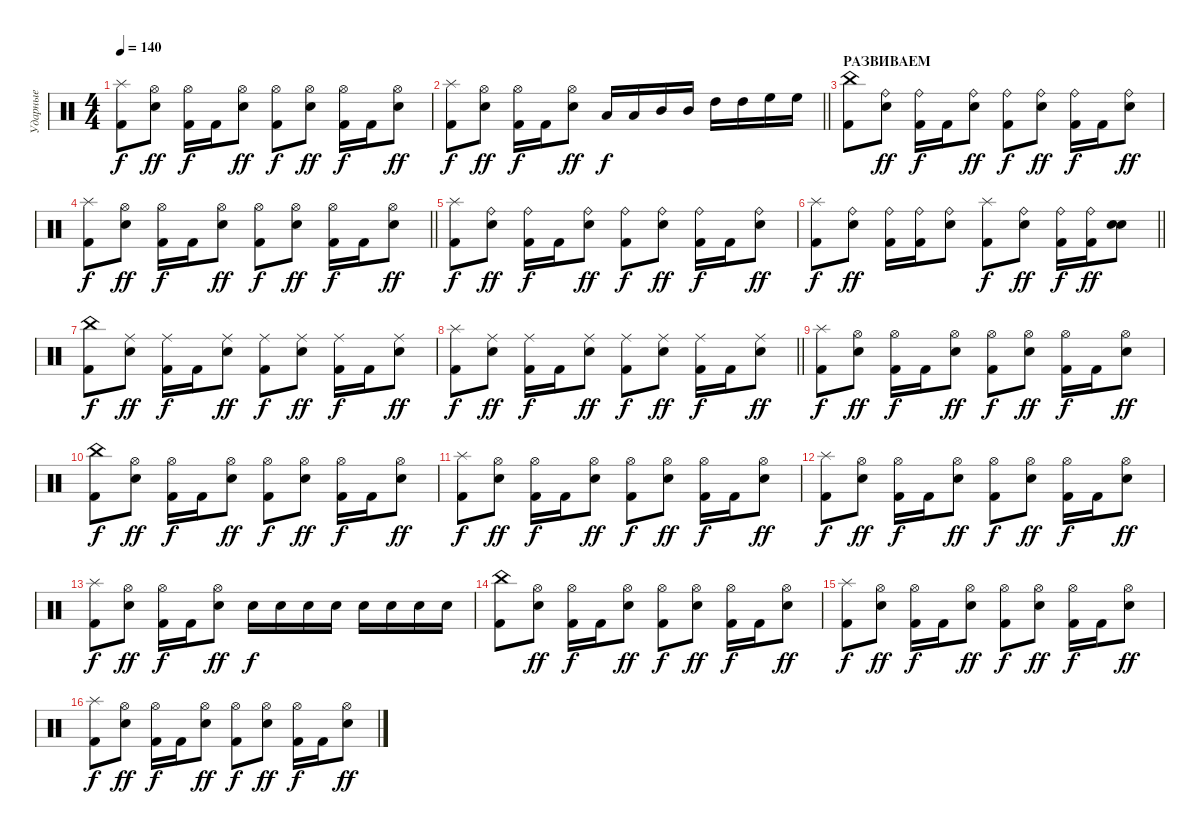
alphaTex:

\track ("Ударные" "Ударные") {instrument percussion}
\staff {score}
\articulation defaults
\ts (4 4)
\tempo 140
\clef neutral
\ks c
("Splash (hit)" "Kick (hit) 2").8{dy f} ("Hi-Hat (open)" "Electric Snare (hit)").8{dy ff} ("Hi-Hat (open)" "Kick (hit) 2").16{dy f} "Kick (hit) 2".16 ("Hi-Hat (open)" "Electric Snare (hit)").8{dy ff} ("Hi-Hat (open)" "Kick (hit) 2").8{dy f} ("Hi-Hat (open)" "Electric Snare (hit)").8{dy ff} ("Hi-Hat (open)" "Kick (hit) 2").16{dy f} "Kick (hit) 2".16 ("Hi-Hat (open)" "Electric Snare (hit)").8{dy ff} |
\barLineRight lightlight
("Splash (hit)" "Kick (hit) 2").8{dy f} ("Hi-Hat (open)" "Electric Snare (hit)").8{dy ff} ("Hi-Hat (open)" "Kick (hit) 2").16{dy f} "Kick (hit) 2".16 ("Hi-Hat (open)" "Electric Snare (hit)").8{dy ff} "Low Tom (hit)".16{dy f} "Low Tom (hit)".16 "Mid Tom (hit)".16 "Mid Tom (hit)".16 "High Tom (hit)".16 "High Tom (hit)".16 "High Floor Tom (hit)".16 "High Floor Tom (hit)".16 |
\section ("" "РАЗВИВАЕМ")
("China (hit)" "Kick (hit) 2").8 ("Ride (bell)" "Electric Snare (hit)").8{dy ff} ("Ride (bell)" "Kick (hit) 2").16{dy f} "Kick (hit) 2".16 ("Ride (bell)" "Electric Snare (hit)").8{dy ff} ("Ride (bell)" "Kick (hit) 2").8{dy f} ("Ride (bell)" "Electric Snare (hit)").8{dy ff} ("Ride (bell)" "Kick (hit) 2").16{dy f} "Kick (hit) 2".16 ("Ride (bell)" "Electric Snare (hit)").8{dy ff} |
\barLineRight lightlight
("Splash (hit)" "Kick (hit) 2").8{dy f} ("Hi-Hat (open)" "Electric Snare (hit)").8{dy ff} ("Hi-Hat (open)" "Kick (hit) 2").16{dy f} "Kick (hit) 2".16 ("Hi-Hat (open)" "Electric Snare (hit)").8{dy ff} ("Hi-Hat (open)" "Kick (hit) 2").8{dy f} ("Hi-Hat (open)" "Electric Snare (hit)").8{dy ff} ("Hi-Hat (open)" "Kick (hit) 2").16{dy f} "Kick (hit) 2".16 ("Hi-Hat (open)" "Electric Snare (hit)").8{dy ff} |
("Splash (hit)" "Kick (hit) 2").8{dy f} ("Ride (bell)" "Electric Snare (hit)").8{dy ff} ("Ride (bell)" "Kick (hit) 2").16{dy f} "Kick (hit) 2".16 ("Ride (bell)" "Electric Snare (hit)").8{dy ff} ("Ride (bell)" "Kick (hit) 2").8{dy f} ("Ride (bell)" "Electric Snare (hit)").8{dy ff} ("Ride (bell)" "Kick (hit) 2").16{dy f} "Kick (hit) 2".16 ("Ride (bell)" "Electric Snare (hit)").8{dy ff} |
\barLineRight lightlight
("Splash (hit)" "Kick (hit) 2").8{dy f} ("Ride (bell)" "Electric Snare (hit)").8{dy ff} ("Ride (bell)" "Kick (hit) 2").16 ("Ride (bell)" "Kick (hit) 2").16 ("Ride (bell)" "Electric Snare (hit)").8 ("Splash (hit)" "Kick (hit) 2").8{dy f} ("Ride (bell)" "Electric Snare (hit)").8{dy ff} ("Ride (bell)" "Kick (hit) 2").16{dy f} ("Ride (bell)" "Kick (hit) 2").16{dy ff} ("Snare (hit)" "Electric Snare (hit)").8 |
("China (hit)" "Kick (hit) 2").8{dy f} ("Ride (middle)" "Electric Snare (hit)").8{dy ff} ("Ride (middle)" "Kick (hit) 2").16{dy f} "Kick (hit) 2".16 ("Ride (middle)" "Electric Snare (hit)").8{dy ff} ("Ride (middle)" "Kick (hit) 2").8{dy f} ("Ride (middle)" "Electric Snare (hit)").8{dy ff} ("Ride (middle)" "Kick (hit) 2").16{dy f} "Kick (hit) 2".16 ("Ride (middle)" "Electric Snare (hit)").8{dy ff} |
\barLineRight lightlight
("Splash (hit)" "Kick (hit) 2").8{dy f} ("Ride (middle)" "Electric Snare (hit)").8{dy ff} ("Ride (middle)" "Kick (hit) 2").16{dy f} "Kick (hit) 2".16 ("Ride (middle)" "Electric Snare (hit)").8{dy ff} ("Ride (middle)" "Kick (hit) 2").8{dy f} ("Ride (middle)" "Electric Snare (hit)").8{dy ff} ("Ride (middle)" "Kick (hit) 2").16{dy f} "Kick (hit) 2".16 ("Ride (middle)" "Electric Snare (hit)").8{dy ff} |
("Splash (hit)" "Kick (hit) 2").8{dy f} ("Hi-Hat (open)" "Electric Snare (hit)").8{dy ff} ("Hi-Hat (open)" "Kick (hit) 2").16{dy f} "Kick (hit) 2".16 ("Hi-Hat (open)" "Electric Snare (hit)").8{dy ff} ("Hi-Hat (open)" "Kick (hit) 2").8{dy f} ("Hi-Hat (open)" "Electric Snare (hit)").8{dy ff} ("Hi-Hat (open)" "Kick (hit) 2").16{dy f} "Kick (hit) 2".16 ("Hi-Hat (open)" "Electric Snare (hit)").8{dy ff} |
("China (hit)" "Kick (hit) 2").8{dy f} ("Hi-Hat (open)" "Electric Snare (hit)").8{dy ff} ("Hi-Hat (open)" "Kick (hit) 2").16{dy f} "Kick (hit) 2".16 ("Hi-Hat (open)" "Electric Snare (hit)").8{dy ff} ("Hi-Hat (open)" "Kick (hit) 2").8{dy f} ("Hi-Hat (open)" "Electric Snare (hit)").8{dy ff} ("Hi-Hat (open)" "Kick (hit) 2").16{dy f} "Kick (hit) 2".16 ("Hi-Hat (open)" "Electric Snare (hit)").8{dy ff} |
("Splash (hit)" "Kick (hit) 2").8{dy f} ("Hi-Hat (open)" "Electric Snare (hit)").8{dy ff} ("Hi-Hat (open)" "Kick (hit) 2").16{dy f} "Kick (hit) 2".16 ("Hi-Hat (open)" "Electric Snare (hit)").8{dy ff} ("Hi-Hat (open)" "Kick (hit) 2").8{dy f} ("Hi-Hat (open)" "Electric Snare (hit)").8{dy ff} ("Hi-Hat (open)" "Kick (hit) 2").16{dy f} "Kick (hit) 2".16 ("Hi-Hat (open)" "Electric Snare (hit)").8{dy ff} |
("Splash (hit)" "Kick (hit) 2").8{dy f} ("Hi-Hat (open)" "Electric Snare (hit)").8{dy ff} ("Hi-Hat (open)" "Kick (hit) 2").16{dy f} "Kick (hit) 2".16 ("Hi-Hat (open)" "Electric Snare (hit)").8{dy ff} ("Hi-Hat (open)" "Kick (hit) 2").8{dy f} ("Hi-Hat (open)" "Electric Snare (hit)").8{dy ff} ("Hi-Hat (open)" "Kick (hit) 2").16{dy f} "Kick (hit) 2".16 ("Hi-Hat (open)" "Electric Snare (hit)").8{dy ff} |
("Splash (hit)" "Kick (hit) 2").8{dy f} ("Hi-Hat (open)" "Electric Snare (hit)").8{dy ff} ("Hi-Hat (open)" "Kick (hit) 2").16{dy f} "Kick (hit) 2".16 ("Hi-Hat (open)" "Electric Snare (hit)").8{dy ff} "Electric Snare (hit)".16{dy f} "Electric Snare (hit)".16 "Electric Snare (hit)".16 "Electric Snare (hit)".16 "Electric Snare (hit)".16 "Electric Snare (hit)".16 "Electric Snare (hit)".16 "Electric Snare (hit)".16 |
("China (hit)" "Kick (hit) 2").8 ("Hi-Hat (open)" "Electric Snare (hit)").8{dy ff} ("Hi-Hat (open)" "Kick (hit) 2").16{dy f} "Kick (hit) 2".16 ("Hi-Hat (open)" "Electric Snare (hit)").8{dy ff} ("Hi-Hat (open)" "Kick (hit) 2").8{dy f} ("Hi-Hat (open)" "Electric Snare (hit)").8{dy ff} ("Hi-Hat (open)" "Kick (hit) 2").16{dy f} "Kick (hit) 2".16 ("Hi-Hat (open)" "Electric Snare (hit)").8{dy ff} |
("Splash (hit)" "Kick (hit) 2").8{dy f} ("Hi-Hat (open)" "Electric Snare (hit)").8{dy ff} ("Hi-Hat (open)" "Kick (hit) 2").16{dy f} "Kick (hit) 2".16 ("Hi-Hat (open)" "Electric Snare (hit)").8{dy ff} ("Hi-Hat (open)" "Kick (hit) 2").8{dy f} ("Hi-Hat (open)" "Electric Snare (hit)").8{dy ff} ("Hi-Hat (open)" "Kick (hit) 2").16{dy f} "Kick (hit) 2".16 ("Hi-Hat (open)" "Electric Snare (hit)").8{dy ff} |
("Splash (hit)" "Kick (hit) 2").8{dy f} ("Hi-Hat (open)" "Electric Snare (hit)").8{dy ff} ("Hi-Hat (open)" "Kick (hit) 2").16{dy f} "Kick (hit) 2".16 ("Hi-Hat (open)" "Electric Snare (hit)").8{dy ff} ("Hi-Hat (open)" "Kick (hit) 2").8{dy f} ("Hi-Hat (open)" "Electric Snare (hit)").8{dy ff} ("Hi-Hat (open)" "Kick (hit) 2").16{dy f} "Kick (hit) 2".16 ("Hi-Hat (open)" "Electric Snare (hit)").8{dy ff}
